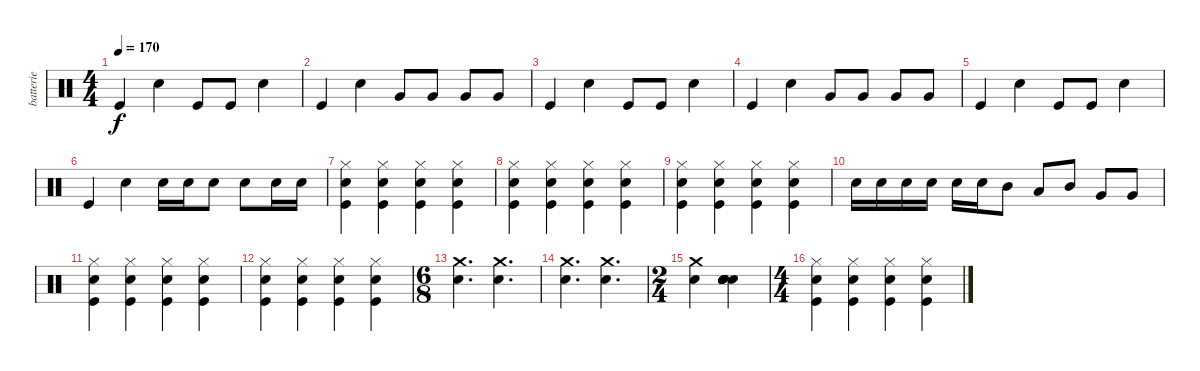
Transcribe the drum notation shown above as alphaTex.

\track ("batterie " "batterie ") {instrument percussion}
\staff {score}
\articulation defaults
\ts (4 4)
\tempo 170
\clef neutral
\ks c "Kick (hit)".4{dy f} "Snare (hit) 2".4 "Kick (hit)".8 "Kick (hit)".8 "Snare (hit) 2".4
|
"Kick (hit)".4 "Snare (hit) 2".4 "Very Low Tom (hit)".8 "Very Low Tom (hit)".8 "Very Low Tom (hit)".8 "Very Low Tom (hit)".8 |
"Kick (hit)".4 "Snare (hit) 2".4 "Kick (hit)".8 "Kick (hit)".8 "Snare (hit) 2".4 |
"Kick (hit)".4 "Snare (hit) 2".4 "Very Low Tom (hit)".8 "Very Low Tom (hit)".8 "Very Low Tom (hit)".8 "Very Low Tom (hit)".8 |
"Kick (hit)".4 "Snare (hit) 2".4 "Kick (hit)".8 "Kick (hit)".8 "Snare (hit) 2".4 |
"Kick (hit)".4 "Snare (hit) 2".4 "Snare (hit) 2".16 "Snare (hit) 2".16 "Snare (hit) 2".8 "Snare (hit) 2".8 "Snare (hit) 2".16 "Snare (hit) 2".16 |
("Hi-Hat (closed)" "Snare (hit) 2" "Kick (hit)").4 ("Hi-Hat (closed)" "Snare (hit) 2" "Kick (hit)").4 ("Hi-Hat (closed)" "Snare (hit) 2" "Kick (hit)").4 ("Hi-Hat (closed)" "Snare (hit) 2" "Kick (hit)").4 |
("Hi-Hat (closed)" "Snare (hit) 2" "Kick (hit)").4 ("Hi-Hat (closed)" "Snare (hit) 2" "Kick (hit)").4 ("Hi-Hat (closed)" "Snare (hit) 2" "Kick (hit)").4 ("Hi-Hat (closed)" "Snare (hit) 2" "Kick (hit)").4 |
("Hi-Hat (closed)" "Snare (hit) 2" "Kick (hit)").4 ("Hi-Hat (closed)" "Snare (hit) 2" "Kick (hit)").4 ("Hi-Hat (closed)" "Snare (hit) 2" "Kick (hit)").4 ("Hi-Hat (closed)" "Snare (hit) 2" "Kick (hit)").4 |
"Snare (hit) 2".16 "Snare (hit) 2".16 "Snare (hit) 2".16 "Snare (hit) 2".16 "Snare (hit) 2".16 "Snare (hit) 2".16 "Mid Tom (hit)".8 "Low Tom (hit)".8 "Mid Tom (hit)".8 "Very Low Tom (hit)".8 "Very Low Tom (hit)".8 |
("Hi-Hat (closed)" "Snare (hit) 2" "Kick (hit)").4 ("Hi-Hat (closed)" "Snare (hit) 2" "Kick (hit)").4 ("Hi-Hat (closed)" "Snare (hit) 2" "Kick (hit)").4 ("Hi-Hat (closed)" "Snare (hit) 2" "Kick (hit)").4 |
("Hi-Hat (closed)" "Snare (hit) 2" "Kick (hit)").4 ("Hi-Hat (closed)" "Snare (hit) 2" "Kick (hit)").4 ("Hi-Hat (closed)" "Snare (hit) 2" "Kick (hit)").4 ("Hi-Hat (closed)" "Snare (hit) 2" "Kick (hit)").4 |
\ts (6 8)
("Crash medium (hit)" "Snare (hit) 2").4{d} ("Crash medium (hit)" "Snare (hit) 2").4{d} |
("Crash medium (hit)" "Snare (hit) 2").4{d} ("Crash medium (hit)" "Snare (hit) 2").4{d} |
\ts (2 4)
("Crash medium (hit)" "Snare (hit) 2").4 ("Hand Clap (hit)" "Hand Clap (hit)" "Hand Clap (hit)" "Snare (hit) 2" "Hand Clap (hit)" "Hand Clap (hit)").4 |
\ts (4 4)
("Hi-Hat (closed)" "Snare (hit) 2" "Kick (hit)").4 ("Hi-Hat (closed)" "Snare (hit) 2" "Kick (hit)").4 ("Hi-Hat (closed)" "Snare (hit) 2" "Kick (hit)").4 ("Hi-Hat (closed)" "Snare (hit) 2" "Kick (hit)").4
